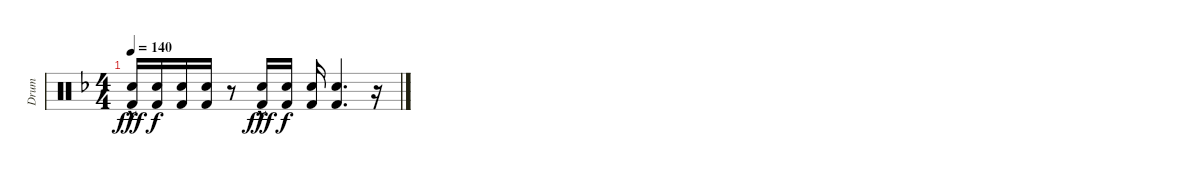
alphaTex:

\track ("Drum" "Drum") {instrument percussion}
\staff {score}
\articulation defaults
\ts (4 4)
\tempo 140
\clef neutral
\ks dminor
("Snare (hit) 2"{hac} "Kick (hit) 2").16{dy fff} ("Snare (hit) 2" "Kick (hit) 2").16{dy f} ("Snare (hit) 2" "Kick (hit) 2").16 ("Snare (hit) 2" "Kick (hit) 2").16 r.8 ("Snare (hit) 2"{hac} "Kick (hit) 2").16{dy fff} ("Snare (hit) 2" "Kick (hit) 2").16{dy f} ("Snare (hit) 2" "Kick (hit) 2").16 ("Snare (hit) 2" "Kick (hit) 2").4{d volume 0} r.16
